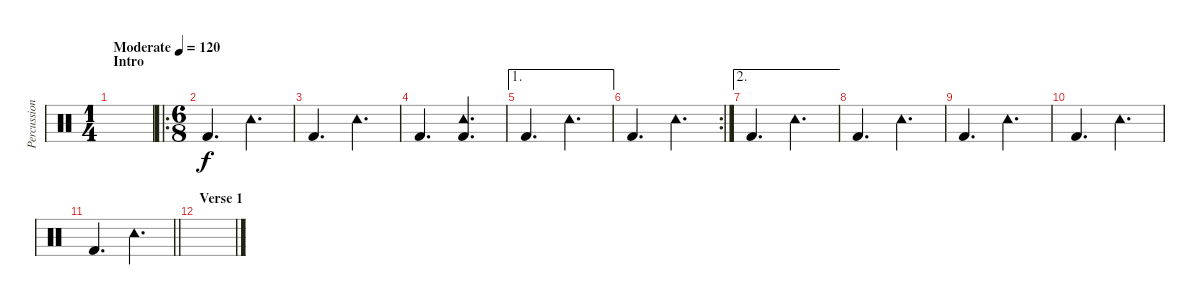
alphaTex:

\track ("Percussion" "Percussion") {instrument percussion}
\staff {score}
\articulation defaults
\ts (1 4)
\section ("" "Intro")
\tempo (120 "Moderate")
\clef neutral
\ks c
|
\ro
\ts (6 8)
"Kick (hit) 2".4{d} "Tambourine (hit)".4{d} |
"Kick (hit) 2".4{d} "Tambourine (hit)".4{d} |
"Kick (hit) 2".4{d} ("Tambourine (hit)" "Kick (hit) 2").4{d} |
\ae 1 "Kick (hit) 2".4{d} "Tambourine (hit)".4{d}
|
\rc 2 "Kick (hit) 2".4{d} "Tambourine (hit)".4{d}
|
\ae 2 "Kick (hit) 2".4{d} "Tambourine (hit)".4{d}
|
"Kick (hit) 2".4{d} "Tambourine (hit)".4{d} |
"Kick (hit) 2".4{d} "Tambourine (hit)".4{d} |
"Kick (hit) 2".4{d} "Tambourine (hit)".4{d} |
\barLineRight lightlight "Kick (hit) 2".4{d} "Tambourine (hit)".4{d}
|
\section ("" "Verse 1")
